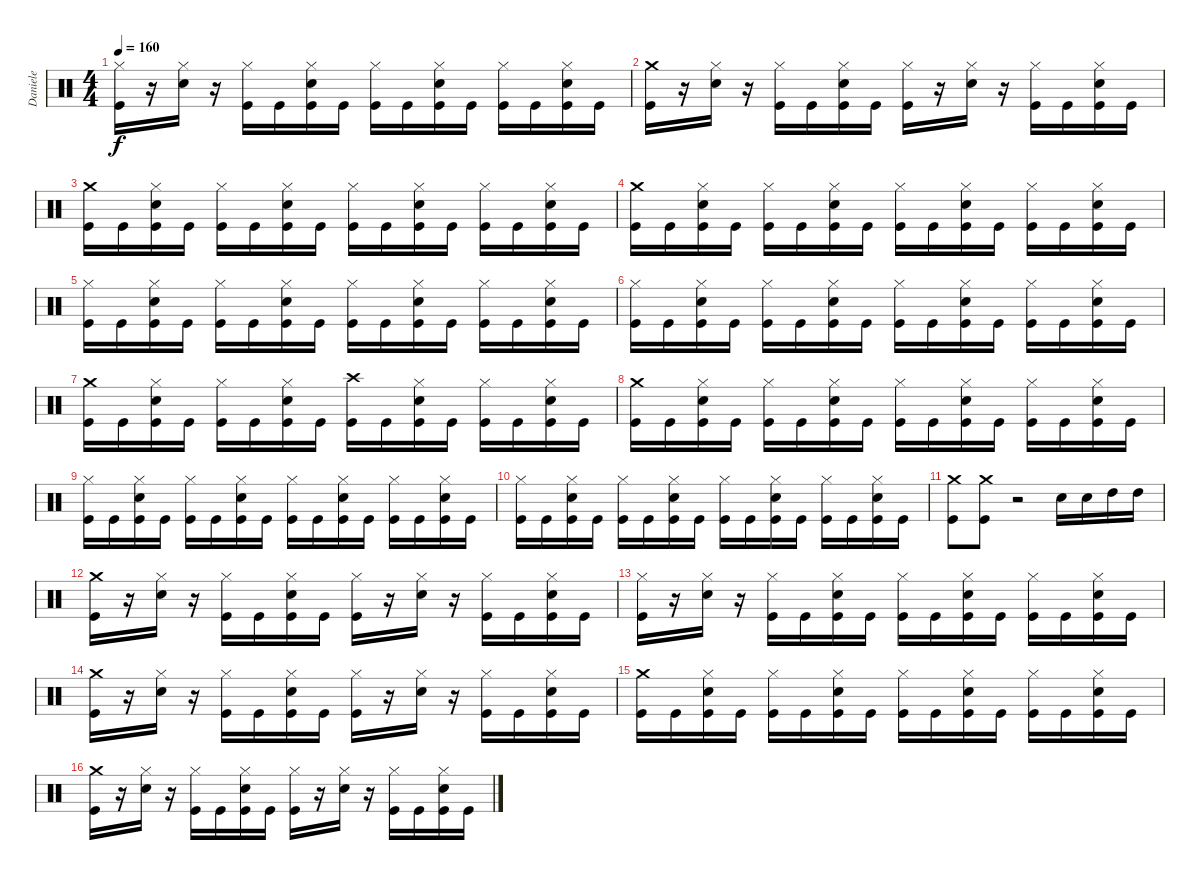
\track ("Daniele" "Daniele") {instrument percussion}
\staff {score}
\articulation defaults
\ts (4 4)
\tempo 160
\clef neutral
\ks c
("Kick (hit)" "Hi-Hat (closed)").16{dy f} r.16 ("Electric Snare (hit)" "Hi-Hat (closed)").16 r.16 ("Kick (hit)" "Hi-Hat (closed)").16 "Kick (hit)".16 ("Kick (hit)" "Electric Snare (hit)" "Hi-Hat (closed)").16 "Kick (hit)".16 ("Kick (hit)" "Hi-Hat (closed)").16 "Kick (hit)".16 ("Kick (hit)" "Electric Snare (hit)" "Hi-Hat (closed)").16 "Kick (hit)".16 ("Kick (hit)" "Hi-Hat (closed)").16 "Kick (hit)".16 ("Kick (hit)" "Electric Snare (hit)" "Hi-Hat (closed)").16 "Kick (hit)".16 |
("Kick (hit)" "Crash medium (hit)").16 r.16 ("Electric Snare (hit)" "Hi-Hat (closed)").16 r.16 ("Kick (hit)" "Hi-Hat (closed)").16 "Kick (hit)".16 ("Kick (hit)" "Electric Snare (hit)" "Hi-Hat (closed)").16 "Kick (hit)".16 ("Kick (hit)" "Hi-Hat (closed)").16 r.16 ("Electric Snare (hit)" "Hi-Hat (closed)").16 r.16 ("Kick (hit)" "Hi-Hat (closed)").16 "Kick (hit)".16 ("Kick (hit)" "Electric Snare (hit)" "Hi-Hat (closed)").16 "Kick (hit)".16 |
("Kick (hit)" "Crash medium (hit)").16 "Kick (hit)".16 ("Kick (hit)" "Electric Snare (hit)" "Hi-Hat (closed)").16 "Kick (hit)".16 ("Kick (hit)" "Hi-Hat (closed)").16 "Kick (hit)".16 ("Kick (hit)" "Electric Snare (hit)" "Hi-Hat (closed)").16 "Kick (hit)".16 ("Kick (hit)" "Hi-Hat (closed)").16 "Kick (hit)".16 ("Kick (hit)" "Electric Snare (hit)" "Hi-Hat (closed)").16 "Kick (hit)".16 ("Kick (hit)" "Hi-Hat (closed)").16 "Kick (hit)".16 ("Kick (hit)" "Electric Snare (hit)" "Hi-Hat (closed)").16 "Kick (hit)".16 |
("Kick (hit)" "Crash medium (hit)").16 "Kick (hit)".16 ("Kick (hit)" "Electric Snare (hit)" "Hi-Hat (closed)").16 "Kick (hit)".16 ("Kick (hit)" "Hi-Hat (closed)").16 "Kick (hit)".16 ("Kick (hit)" "Electric Snare (hit)" "Hi-Hat (closed)").16 "Kick (hit)".16 ("Kick (hit)" "Hi-Hat (closed)").16 "Kick (hit)".16 ("Kick (hit)" "Electric Snare (hit)" "Hi-Hat (closed)").16 "Kick (hit)".16 ("Kick (hit)" "Hi-Hat (closed)").16 "Kick (hit)".16 ("Kick (hit)" "Electric Snare (hit)" "Hi-Hat (closed)").16 "Kick (hit)".16 |
("Kick (hit)" "Hi-Hat (closed)").16 "Kick (hit)".16 ("Kick (hit)" "Electric Snare (hit)" "Hi-Hat (closed)").16 "Kick (hit)".16 ("Kick (hit)" "Hi-Hat (closed)").16 "Kick (hit)".16 ("Kick (hit)" "Electric Snare (hit)" "Hi-Hat (closed)").16 "Kick (hit)".16 ("Kick (hit)" "Hi-Hat (closed)").16 "Kick (hit)".16 ("Kick (hit)" "Electric Snare (hit)" "Hi-Hat (closed)").16 "Kick (hit)".16 ("Kick (hit)" "Hi-Hat (closed)").16 "Kick (hit)".16 ("Kick (hit)" "Electric Snare (hit)" "Hi-Hat (closed)").16 "Kick (hit)".16 |
("Kick (hit)" "Hi-Hat (closed)").16 "Kick (hit)".16 ("Kick (hit)" "Electric Snare (hit)" "Hi-Hat (closed)").16 "Kick (hit)".16 ("Kick (hit)" "Hi-Hat (closed)").16 "Kick (hit)".16 ("Kick (hit)" "Electric Snare (hit)" "Hi-Hat (closed)").16 "Kick (hit)".16 ("Kick (hit)" "Hi-Hat (closed)").16 "Kick (hit)".16 ("Kick (hit)" "Electric Snare (hit)" "Hi-Hat (closed)").16 "Kick (hit)".16 ("Kick (hit)" "Hi-Hat (closed)").16 "Kick (hit)".16 ("Kick (hit)" "Electric Snare (hit)" "Hi-Hat (closed)").16 "Kick (hit)".16 |
("Kick (hit)" "Crash medium (hit)").16 "Kick (hit)".16 ("Kick (hit)" "Electric Snare (hit)" "Hi-Hat (closed)").16 "Kick (hit)".16 ("Kick (hit)" "Hi-Hat (closed)").16 "Kick (hit)".16 ("Kick (hit)" "Electric Snare (hit)" "Hi-Hat (closed)").16 "Kick (hit)".16 ("Kick (hit)" "Crash high (hit)").16 "Kick (hit)".16 ("Kick (hit)" "Electric Snare (hit)" "Hi-Hat (closed)").16 "Kick (hit)".16 ("Kick (hit)" "Hi-Hat (closed)").16 "Kick (hit)".16 ("Kick (hit)" "Electric Snare (hit)" "Hi-Hat (closed)").16 "Kick (hit)".16 |
("Kick (hit)" "Crash medium (hit)").16 "Kick (hit)".16 ("Kick (hit)" "Electric Snare (hit)" "Hi-Hat (closed)").16 "Kick (hit)".16 ("Kick (hit)" "Hi-Hat (closed)").16 "Kick (hit)".16 ("Kick (hit)" "Electric Snare (hit)" "Hi-Hat (closed)").16 "Kick (hit)".16 ("Kick (hit)" "Hi-Hat (closed)").16 "Kick (hit)".16 ("Kick (hit)" "Electric Snare (hit)" "Hi-Hat (closed)").16 "Kick (hit)".16 ("Kick (hit)" "Hi-Hat (closed)").16 "Kick (hit)".16 ("Kick (hit)" "Electric Snare (hit)" "Hi-Hat (closed)").16 "Kick (hit)".16 |
("Kick (hit)" "Hi-Hat (closed)").16 "Kick (hit)".16 ("Kick (hit)" "Electric Snare (hit)" "Hi-Hat (closed)").16 "Kick (hit)".16 ("Kick (hit)" "Hi-Hat (closed)").16 "Kick (hit)".16 ("Kick (hit)" "Electric Snare (hit)" "Hi-Hat (closed)").16 "Kick (hit)".16 ("Kick (hit)" "Hi-Hat (closed)").16 "Kick (hit)".16 ("Kick (hit)" "Electric Snare (hit)" "Hi-Hat (closed)").16 "Kick (hit)".16 ("Kick (hit)" "Hi-Hat (closed)").16 "Kick (hit)".16 ("Kick (hit)" "Electric Snare (hit)" "Hi-Hat (closed)").16 "Kick (hit)".16 |
("Kick (hit)" "Hi-Hat (closed)").16 "Kick (hit)".16 ("Kick (hit)" "Electric Snare (hit)" "Hi-Hat (closed)").16 "Kick (hit)".16 ("Kick (hit)" "Hi-Hat (closed)").16 "Kick (hit)".16 ("Kick (hit)" "Electric Snare (hit)" "Hi-Hat (closed)").16 "Kick (hit)".16 ("Kick (hit)" "Hi-Hat (closed)").16 "Kick (hit)".16 ("Kick (hit)" "Electric Snare (hit)" "Hi-Hat (closed)").16 "Kick (hit)".16 ("Kick (hit)" "Hi-Hat (closed)").16 "Kick (hit)".16 ("Kick (hit)" "Electric Snare (hit)" "Hi-Hat (closed)").16 "Kick (hit)".16 |
("Kick (hit)" "Crash medium (hit)").8 ("Kick (hit)" "Crash medium (hit)").8 r.2 "Electric Snare (hit)".16 "Electric Snare (hit)".16 "High Tom (hit)".16 "High Tom (hit)".16 |
("Kick (hit)" "Crash medium (hit)").16 r.16 ("Electric Snare (hit)" "Hi-Hat (closed)").16 r.16 ("Kick (hit)" "Hi-Hat (closed)").16 "Kick (hit)".16 ("Kick (hit)" "Electric Snare (hit)" "Hi-Hat (closed)").16 "Kick (hit)".16 ("Kick (hit)" "Hi-Hat (closed)").16 r.16 ("Electric Snare (hit)" "Hi-Hat (closed)").16 r.16 ("Kick (hit)" "Hi-Hat (closed)").16 "Kick (hit)".16 ("Kick (hit)" "Electric Snare (hit)" "Hi-Hat (closed)").16 "Kick (hit)".16 |
("Kick (hit)" "Hi-Hat (closed)").16 r.16 ("Electric Snare (hit)" "Hi-Hat (closed)").16 r.16 ("Kick (hit)" "Hi-Hat (closed)").16 "Kick (hit)".16 ("Kick (hit)" "Electric Snare (hit)" "Hi-Hat (closed)").16 "Kick (hit)".16 ("Kick (hit)" "Hi-Hat (closed)").16 "Kick (hit)".16 ("Kick (hit)" "Electric Snare (hit)" "Hi-Hat (closed)").16 "Kick (hit)".16 ("Kick (hit)" "Hi-Hat (closed)").16 "Kick (hit)".16 ("Kick (hit)" "Electric Snare (hit)" "Hi-Hat (closed)").16 "Kick (hit)".16 |
("Kick (hit)" "Crash medium (hit)").16 r.16 ("Electric Snare (hit)" "Hi-Hat (closed)").16 r.16 ("Kick (hit)" "Hi-Hat (closed)").16 "Kick (hit)".16 ("Kick (hit)" "Electric Snare (hit)" "Hi-Hat (closed)").16 "Kick (hit)".16 ("Kick (hit)" "Hi-Hat (closed)").16 r.16 ("Electric Snare (hit)" "Hi-Hat (closed)").16 r.16 ("Kick (hit)" "Hi-Hat (closed)").16 "Kick (hit)".16 ("Kick (hit)" "Electric Snare (hit)" "Hi-Hat (closed)").16 "Kick (hit)".16 |
("Kick (hit)" "Crash medium (hit)").16 "Kick (hit)".16 ("Kick (hit)" "Electric Snare (hit)" "Hi-Hat (closed)").16 "Kick (hit)".16 ("Kick (hit)" "Hi-Hat (closed)").16 "Kick (hit)".16 ("Kick (hit)" "Electric Snare (hit)" "Hi-Hat (closed)").16 "Kick (hit)".16 ("Kick (hit)" "Hi-Hat (closed)").16 "Kick (hit)".16 ("Kick (hit)" "Electric Snare (hit)" "Hi-Hat (closed)").16 "Kick (hit)".16 ("Kick (hit)" "Hi-Hat (closed)").16 "Kick (hit)".16 ("Kick (hit)" "Electric Snare (hit)" "Hi-Hat (closed)").16 "Kick (hit)".16 |
("Kick (hit)" "Crash medium (hit)").16 r.16 ("Electric Snare (hit)" "Hi-Hat (closed)").16 r.16 ("Kick (hit)" "Hi-Hat (closed)").16 "Kick (hit)".16 ("Kick (hit)" "Electric Snare (hit)" "Hi-Hat (closed)").16 "Kick (hit)".16 ("Kick (hit)" "Hi-Hat (closed)").16 r.16 ("Electric Snare (hit)" "Hi-Hat (closed)").16 r.16 ("Kick (hit)" "Hi-Hat (closed)").16 "Kick (hit)".16 ("Kick (hit)" "Electric Snare (hit)" "Hi-Hat (closed)").16 "Kick (hit)".16
